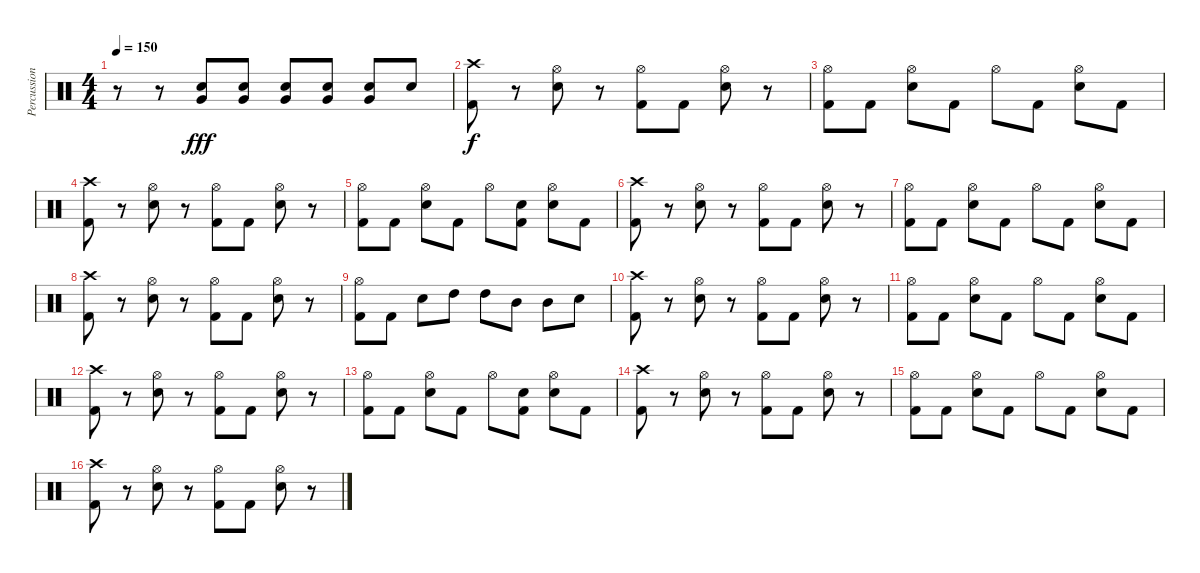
\track ("Percussion" "Percussion") {instrument percussion}
\staff {score}
\articulation defaults
\ts (4 4)
\tempo 150
\clef neutral
\ks c
r.8{dy f} r.8 ("Electric Snare (hit)" "Very Low Tom (hit)").8{dy fff} ("Electric Snare (hit)" "Very Low Tom (hit)").8 ("Electric Snare (hit)" "Very Low Tom (hit)").8 ("Electric Snare (hit)" "Very Low Tom (hit)").8 ("Electric Snare (hit)" "Very Low Tom (hit)").8 "Electric Snare (hit)".8 |
("Crash high (hit)" "Kick (hit) 2").8{dy f} r.8 ("Hi-Hat (open)" "Electric Snare (hit)").8 r.8 ("Hi-Hat (open)" "Kick (hit) 2").8 "Kick (hit) 2".8 ("Hi-Hat (open)" "Electric Snare (hit)").8 r.8 |
("Hi-Hat (open)" "Kick (hit) 2").8 "Kick (hit) 2".8 ("Hi-Hat (open)" "Electric Snare (hit)").8 "Kick (hit) 2".8 "Hi-Hat (open)".8 "Kick (hit) 2".8 ("Hi-Hat (open)" "Electric Snare (hit)").8 "Kick (hit) 2".8 |
("Crash high (hit)" "Kick (hit) 2").8 r.8 ("Hi-Hat (open)" "Electric Snare (hit)").8 r.8 ("Hi-Hat (open)" "Kick (hit) 2").8 "Kick (hit) 2".8 ("Hi-Hat (open)" "Electric Snare (hit)").8 r.8 |
("Hi-Hat (open)" "Kick (hit) 2").8 "Kick (hit) 2".8 ("Hi-Hat (open)" "Electric Snare (hit)").8 "Kick (hit) 2".8 "Hi-Hat (open)".8 ("Electric Snare (hit)" "Kick (hit) 2").8 ("Hi-Hat (open)" "Electric Snare (hit)").8 "Kick (hit) 2".8 |
("Crash high (hit)" "Kick (hit) 2").8 r.8 ("Hi-Hat (open)" "Electric Snare (hit)").8 r.8 ("Hi-Hat (open)" "Kick (hit) 2").8 "Kick (hit) 2".8 ("Hi-Hat (open)" "Electric Snare (hit)").8 r.8 |
("Hi-Hat (open)" "Kick (hit) 2").8 "Kick (hit) 2".8 ("Hi-Hat (open)" "Electric Snare (hit)").8 "Kick (hit) 2".8 "Hi-Hat (open)".8 "Kick (hit) 2".8 ("Hi-Hat (open)" "Electric Snare (hit)").8 "Kick (hit) 2".8 |
("Crash high (hit)" "Kick (hit) 2").8 r.8 ("Hi-Hat (open)" "Electric Snare (hit)").8 r.8 ("Hi-Hat (open)" "Kick (hit) 2").8 "Kick (hit) 2".8 ("Hi-Hat (open)" "Electric Snare (hit)").8 r.8 |
("Hi-Hat (open)" "Kick (hit) 2").8 "Kick (hit) 2".8 "Electric Snare (hit)".8 "High Tom (hit)".8 "High Tom (hit)".8 "Mid Tom (hit)".8 "Mid Tom (hit)".8 "Electric Snare (hit)".8 |
("Crash high (hit)" "Kick (hit) 2").8 r.8 ("Hi-Hat (open)" "Electric Snare (hit)").8 r.8 ("Hi-Hat (open)" "Kick (hit) 2").8 "Kick (hit) 2".8 ("Hi-Hat (open)" "Electric Snare (hit)").8 r.8 |
("Hi-Hat (open)" "Kick (hit) 2").8 "Kick (hit) 2".8 ("Hi-Hat (open)" "Electric Snare (hit)").8 "Kick (hit) 2".8 "Hi-Hat (open)".8 "Kick (hit) 2".8 ("Hi-Hat (open)" "Electric Snare (hit)").8 "Kick (hit) 2".8 |
("Crash high (hit)" "Kick (hit) 2").8 r.8 ("Hi-Hat (open)" "Electric Snare (hit)").8 r.8 ("Hi-Hat (open)" "Kick (hit) 2").8 "Kick (hit) 2".8 ("Hi-Hat (open)" "Electric Snare (hit)").8 r.8 |
("Hi-Hat (open)" "Kick (hit) 2").8 "Kick (hit) 2".8 ("Hi-Hat (open)" "Electric Snare (hit)").8 "Kick (hit) 2".8 "Hi-Hat (open)".8 ("Electric Snare (hit)" "Kick (hit) 2").8 ("Hi-Hat (open)" "Electric Snare (hit)").8 "Kick (hit) 2".8 |
("Crash high (hit)" "Kick (hit) 2").8 r.8 ("Hi-Hat (open)" "Electric Snare (hit)").8 r.8 ("Hi-Hat (open)" "Kick (hit) 2").8 "Kick (hit) 2".8 ("Hi-Hat (open)" "Electric Snare (hit)").8 r.8 |
("Hi-Hat (open)" "Kick (hit) 2").8 "Kick (hit) 2".8 ("Hi-Hat (open)" "Electric Snare (hit)").8 "Kick (hit) 2".8 "Hi-Hat (open)".8 "Kick (hit) 2".8 ("Hi-Hat (open)" "Electric Snare (hit)").8 "Kick (hit) 2".8 |
("Crash high (hit)" "Kick (hit) 2").8 r.8 ("Hi-Hat (open)" "Electric Snare (hit)").8 r.8 ("Hi-Hat (open)" "Kick (hit) 2").8 "Kick (hit) 2".8 ("Hi-Hat (open)" "Electric Snare (hit)").8 r.8
